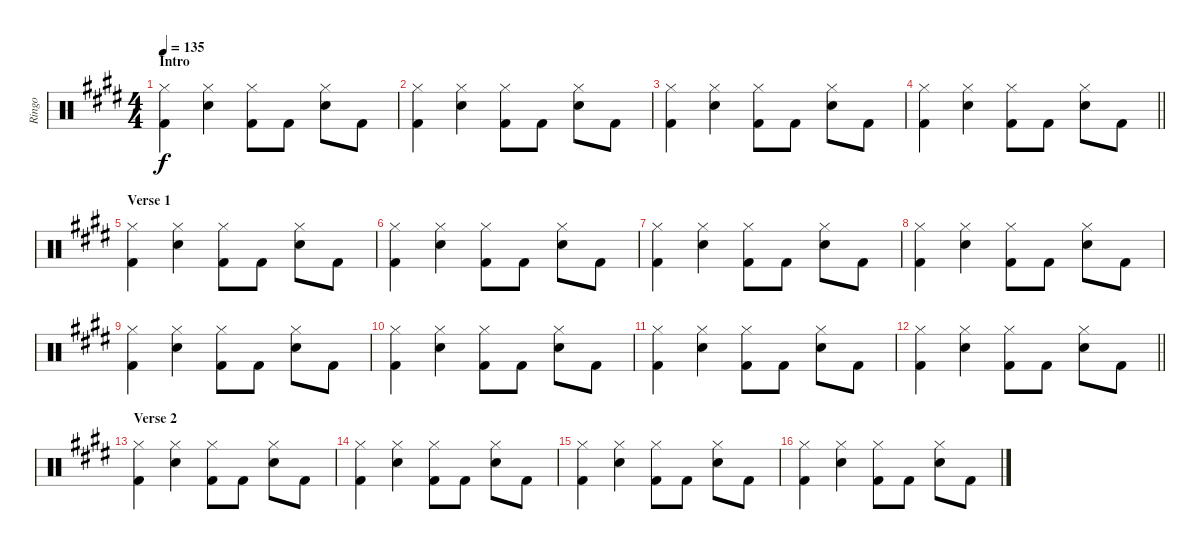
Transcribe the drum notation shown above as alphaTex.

\track ("Ringo" "Ringo") {instrument percussion}
\staff {score}
\articulation defaults
\ts (4 4)
\section ("" "Intro")
\tempo 135
\clef neutral
\ks e
("Hi-Hat (closed)" "Kick (hit) 2").4{dy f} ("Hi-Hat (closed)" "Snare (hit) 2").4 ("Hi-Hat (closed)" "Kick (hit) 2").8 "Kick (hit) 2".8 ("Hi-Hat (closed)" "Snare (hit) 2").8 "Kick (hit) 2".8 |
("Hi-Hat (closed)" "Kick (hit) 2").4 ("Hi-Hat (closed)" "Snare (hit) 2").4 ("Hi-Hat (closed)" "Kick (hit) 2").8 "Kick (hit) 2".8 ("Hi-Hat (closed)" "Snare (hit) 2").8 "Kick (hit) 2".8 |
("Hi-Hat (closed)" "Kick (hit) 2").4 ("Hi-Hat (closed)" "Snare (hit) 2").4 ("Hi-Hat (closed)" "Kick (hit) 2").8 "Kick (hit) 2".8 ("Hi-Hat (closed)" "Snare (hit) 2").8 "Kick (hit) 2".8 |
\barLineRight lightlight
("Hi-Hat (closed)" "Kick (hit) 2").4 ("Hi-Hat (closed)" "Snare (hit) 2").4 ("Hi-Hat (closed)" "Kick (hit) 2").8 "Kick (hit) 2".8 ("Hi-Hat (closed)" "Snare (hit) 2").8 "Kick (hit) 2".8 |
\section ("" "Verse 1")
("Hi-Hat (closed)" "Kick (hit) 2").4 ("Hi-Hat (closed)" "Snare (hit) 2").4 ("Hi-Hat (closed)" "Kick (hit) 2").8 "Kick (hit) 2".8 ("Hi-Hat (closed)" "Snare (hit) 2").8 "Kick (hit) 2".8 |
("Hi-Hat (closed)" "Kick (hit) 2").4 ("Hi-Hat (closed)" "Snare (hit) 2").4 ("Hi-Hat (closed)" "Kick (hit) 2").8 "Kick (hit) 2".8 ("Hi-Hat (closed)" "Snare (hit) 2").8 "Kick (hit) 2".8 |
("Hi-Hat (closed)" "Kick (hit) 2").4 ("Hi-Hat (closed)" "Snare (hit) 2").4 ("Hi-Hat (closed)" "Kick (hit) 2").8 "Kick (hit) 2".8 ("Hi-Hat (closed)" "Snare (hit) 2").8 "Kick (hit) 2".8 |
("Hi-Hat (closed)" "Kick (hit) 2").4 ("Hi-Hat (closed)" "Snare (hit) 2").4 ("Hi-Hat (closed)" "Kick (hit) 2").8 "Kick (hit) 2".8 ("Hi-Hat (closed)" "Snare (hit) 2").8 "Kick (hit) 2".8 |
("Hi-Hat (closed)" "Kick (hit) 2").4 ("Hi-Hat (closed)" "Snare (hit) 2").4 ("Hi-Hat (closed)" "Kick (hit) 2").8 "Kick (hit) 2".8 ("Hi-Hat (closed)" "Snare (hit) 2").8 "Kick (hit) 2".8 |
("Hi-Hat (closed)" "Kick (hit) 2").4 ("Hi-Hat (closed)" "Snare (hit) 2").4 ("Hi-Hat (closed)" "Kick (hit) 2").8 "Kick (hit) 2".8 ("Hi-Hat (closed)" "Snare (hit) 2").8 "Kick (hit) 2".8 |
("Hi-Hat (closed)" "Kick (hit) 2").4 ("Hi-Hat (closed)" "Snare (hit) 2").4 ("Hi-Hat (closed)" "Kick (hit) 2").8 "Kick (hit) 2".8 ("Hi-Hat (closed)" "Snare (hit) 2").8 "Kick (hit) 2".8 |
\barLineRight lightlight
("Hi-Hat (closed)" "Kick (hit) 2").4 ("Hi-Hat (closed)" "Snare (hit) 2").4 ("Hi-Hat (closed)" "Kick (hit) 2").8 "Kick (hit) 2".8 ("Hi-Hat (closed)" "Snare (hit) 2").8 "Kick (hit) 2".8 |
\section ("" "Verse 2")
("Hi-Hat (closed)" "Kick (hit) 2").4 ("Hi-Hat (closed)" "Snare (hit) 2").4 ("Hi-Hat (closed)" "Kick (hit) 2").8 "Kick (hit) 2".8 ("Hi-Hat (closed)" "Snare (hit) 2").8 "Kick (hit) 2".8 |
("Hi-Hat (closed)" "Kick (hit) 2").4 ("Hi-Hat (closed)" "Snare (hit) 2").4 ("Hi-Hat (closed)" "Kick (hit) 2").8 "Kick (hit) 2".8 ("Hi-Hat (closed)" "Snare (hit) 2").8 "Kick (hit) 2".8 |
("Hi-Hat (closed)" "Kick (hit) 2").4 ("Hi-Hat (closed)" "Snare (hit) 2").4 ("Hi-Hat (closed)" "Kick (hit) 2").8 "Kick (hit) 2".8 ("Hi-Hat (closed)" "Snare (hit) 2").8 "Kick (hit) 2".8 |
("Hi-Hat (closed)" "Kick (hit) 2").4 ("Hi-Hat (closed)" "Snare (hit) 2").4 ("Hi-Hat (closed)" "Kick (hit) 2").8 "Kick (hit) 2".8 ("Hi-Hat (closed)" "Snare (hit) 2").8 "Kick (hit) 2".8
